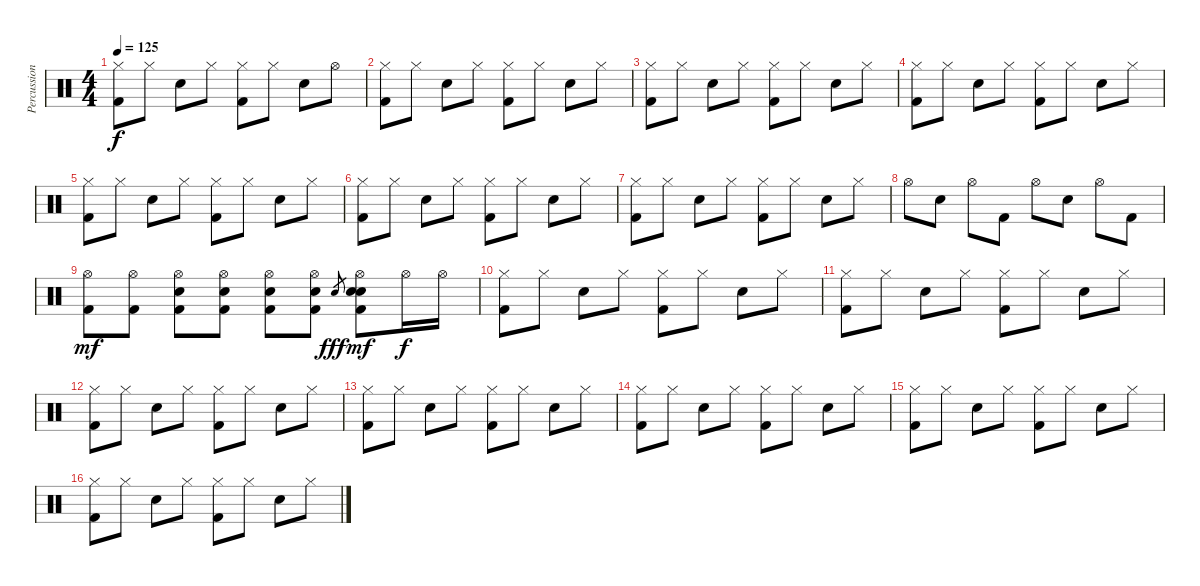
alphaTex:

\track ("Percussion" "Percussion") {instrument percussion}
\staff {score}
\articulation defaults
\ts (4 4)
\tempo 125
\clef neutral
\ks c
("Hi-Hat (closed)" "Kick (hit) 2").8{dy f} "Hi-Hat (closed)".8 "Electric Snare (hit)".8 "Hi-Hat (closed)".8 ("Hi-Hat (closed)" "Kick (hit) 2").8 "Hi-Hat (closed)".8 "Electric Snare (hit)".8 "Hi-Hat (open)".8 |
("Hi-Hat (closed)" "Kick (hit) 2").8 "Hi-Hat (closed)".8 "Electric Snare (hit)".8 "Hi-Hat (closed)".8 ("Hi-Hat (closed)" "Kick (hit) 2").8 "Hi-Hat (closed)".8 "Electric Snare (hit)".8 "Hi-Hat (closed)".8 |
("Hi-Hat (closed)" "Kick (hit) 2").8 "Hi-Hat (closed)".8 "Electric Snare (hit)".8 "Hi-Hat (closed)".8 ("Hi-Hat (closed)" "Kick (hit) 2").8 "Hi-Hat (closed)".8 "Electric Snare (hit)".8 "Hi-Hat (closed)".8 |
("Hi-Hat (closed)" "Kick (hit) 2").8 "Hi-Hat (closed)".8 "Electric Snare (hit)".8 "Hi-Hat (closed)".8 ("Hi-Hat (closed)" "Kick (hit) 2").8 "Hi-Hat (closed)".8 "Electric Snare (hit)".8 "Hi-Hat (closed)".8 |
("Hi-Hat (closed)" "Kick (hit) 2").8 "Hi-Hat (closed)".8 "Electric Snare (hit)".8 "Hi-Hat (closed)".8 ("Hi-Hat (closed)" "Kick (hit) 2").8 "Hi-Hat (closed)".8 "Electric Snare (hit)".8 "Hi-Hat (closed)".8 |
("Hi-Hat (closed)" "Kick (hit) 2").8 "Hi-Hat (closed)".8 "Electric Snare (hit)".8 "Hi-Hat (closed)".8 ("Hi-Hat (closed)" "Kick (hit) 2").8 "Hi-Hat (closed)".8 "Electric Snare (hit)".8 "Hi-Hat (closed)".8 |
("Hi-Hat (closed)" "Kick (hit) 2").8 "Hi-Hat (closed)".8 "Electric Snare (hit)".8 "Hi-Hat (closed)".8 ("Hi-Hat (closed)" "Kick (hit) 2").8 "Hi-Hat (closed)".8 "Electric Snare (hit)".8 "Hi-Hat (closed)".8 |
"Hi-Hat (open)".8 "Electric Snare (hit)".8 "Hi-Hat (open)".8 "Kick (hit) 2".8 "Hi-Hat (open)".8 "Electric Snare (hit)".8 "Hi-Hat (open)".8 "Kick (hit) 2".8 |
("Hi-Hat (open)" "Kick (hit) 2").8{dy mf} ("Hi-Hat (open)" "Kick (hit) 2").8 ("Electric Snare (hit)" "Hi-Hat (open)" "Kick (hit) 2").8 ("Electric Snare (hit)" "Hi-Hat (open)" "Kick (hit) 2").8 ("Electric Snare (hit)" "Hi-Hat (open)" "Kick (hit) 2").8 ("Electric Snare (hit)" "Hi-Hat (open)" "Kick (hit) 2").8 "Electric Snare (hit)".8{gr dy fff} ("Electric Snare (hit)" "Electric Snare (hit)" "Hi-Hat (open)" "Kick (hit) 2").8{dy mf} "Hi-Hat (open)".16{dy f} "Hi-Hat (open)".16 |
("Hi-Hat (closed)" "Kick (hit) 2").8 "Hi-Hat (closed)".8 "Electric Snare (hit)".8 "Hi-Hat (closed)".8 ("Hi-Hat (closed)" "Kick (hit) 2").8 "Hi-Hat (closed)".8 "Electric Snare (hit)".8 "Hi-Hat (closed)".8 |
("Hi-Hat (closed)" "Kick (hit) 2").8 "Hi-Hat (closed)".8 "Electric Snare (hit)".8 "Hi-Hat (closed)".8 ("Hi-Hat (closed)" "Kick (hit) 2").8 "Hi-Hat (closed)".8 "Electric Snare (hit)".8 "Hi-Hat (closed)".8 |
("Hi-Hat (closed)" "Kick (hit) 2").8 "Hi-Hat (closed)".8 "Electric Snare (hit)".8 "Hi-Hat (closed)".8 ("Hi-Hat (closed)" "Kick (hit) 2").8 "Hi-Hat (closed)".8 "Electric Snare (hit)".8 "Hi-Hat (closed)".8 |
("Hi-Hat (closed)" "Kick (hit) 2").8 "Hi-Hat (closed)".8 "Electric Snare (hit)".8 "Hi-Hat (closed)".8 ("Hi-Hat (closed)" "Kick (hit) 2").8 "Hi-Hat (closed)".8 "Electric Snare (hit)".8 "Hi-Hat (closed)".8 |
("Hi-Hat (closed)" "Kick (hit) 2").8 "Hi-Hat (closed)".8 "Electric Snare (hit)".8 "Hi-Hat (closed)".8 ("Hi-Hat (closed)" "Kick (hit) 2").8 "Hi-Hat (closed)".8 "Electric Snare (hit)".8 "Hi-Hat (closed)".8 |
("Hi-Hat (closed)" "Kick (hit) 2").8 "Hi-Hat (closed)".8 "Electric Snare (hit)".8 "Hi-Hat (closed)".8 ("Hi-Hat (closed)" "Kick (hit) 2").8 "Hi-Hat (closed)".8 "Electric Snare (hit)".8 "Hi-Hat (closed)".8 |
("Hi-Hat (closed)" "Kick (hit) 2").8 "Hi-Hat (closed)".8 "Electric Snare (hit)".8 "Hi-Hat (closed)".8 ("Hi-Hat (closed)" "Kick (hit) 2").8 "Hi-Hat (closed)".8 "Electric Snare (hit)".8 "Hi-Hat (closed)".8
